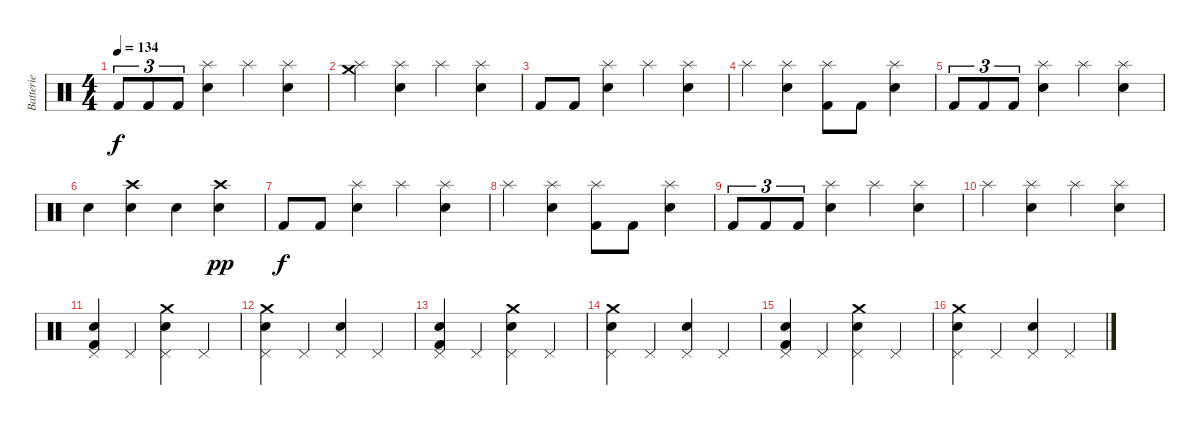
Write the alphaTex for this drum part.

\track ("Batterie" "Batterie") {instrument percussion}
\staff {score}
\articulation defaults
\ts (4 4)
\tempo 134
\clef neutral
\ks c "Kick (hit) 2".8{tu (3 2) dy f} "Kick (hit) 2".8{tu (3 2)} "Kick (hit) 2".8{tu (3 2)}
("Splash (hit)" "Electric Snare (hit)").4 "Splash (hit)".4 ("Splash (hit)" "Electric Snare (hit)").4 |
("Splash (hit)" "Crash medium (hit)").4 ("Splash (hit)" "Electric Snare (hit)").4 "Splash (hit)".4 ("Splash (hit)" "Electric Snare (hit)").4 |
"Kick (hit) 2".8 "Kick (hit) 2".8 ("Splash (hit)" "Electric Snare (hit)").4 "Splash (hit)".4 ("Splash (hit)" "Electric Snare (hit)").4 |
"Splash (hit)".4 ("Splash (hit)" "Electric Snare (hit)").4 ("Splash (hit)" "Kick (hit) 2").8 "Kick (hit) 2".8 ("Splash (hit)" "Electric Snare (hit)").4 |
"Kick (hit) 2".8{tu (3 2)} "Kick (hit) 2".8{tu (3 2)} "Kick (hit) 2".8{tu (3 2)} ("Splash (hit)" "Electric Snare (hit)").4 "Splash (hit)".4 ("Splash (hit)" "Electric Snare (hit)").4 |
"Snare (hit) 2".4 ("Snare (hit) 2" "Crash high (hit)").4 "Snare (hit) 2".4 ("Snare (hit) 2" "Crash high (hit)").4{dy pp} |
"Kick (hit) 2".8{dy f} "Kick (hit) 2".8 ("Splash (hit)" "Electric Snare (hit)").4 "Splash (hit)".4 ("Splash (hit)" "Electric Snare (hit)").4 |
"Splash (hit)".4 ("Splash (hit)" "Electric Snare (hit)").4 ("Splash (hit)" "Kick (hit) 2").8 "Kick (hit) 2".8 ("Splash (hit)" "Electric Snare (hit)").4 |
"Kick (hit) 2".8{tu (3 2)} "Kick (hit) 2".8{tu (3 2)} "Kick (hit) 2".8{tu (3 2)} ("Splash (hit)" "Electric Snare (hit)").4 "Splash (hit)".4 ("Splash (hit)" "Electric Snare (hit)").4 |
"Splash (hit)".4 ("Splash (hit)" "Electric Snare (hit)").4 "Splash (hit)".4 ("Splash (hit)" "Electric Snare (hit)").4 |
("Pedal Hi-Hat (hit)" "Kick (hit) 2" "Snare (hit) 2").4 "Pedal Hi-Hat (hit)".4 ("Pedal Hi-Hat (hit)" "Crash medium (hit)" "Snare (hit) 2").4 "Pedal Hi-Hat (hit)".4 |
("Pedal Hi-Hat (hit)" "Crash medium (hit)" "Snare (hit) 2").4 "Pedal Hi-Hat (hit)".4 ("Pedal Hi-Hat (hit)" "Snare (hit) 2").4 "Pedal Hi-Hat (hit)".4 |
("Pedal Hi-Hat (hit)" "Kick (hit) 2" "Snare (hit) 2").4 "Pedal Hi-Hat (hit)".4 ("Pedal Hi-Hat (hit)" "Crash medium (hit)" "Snare (hit) 2").4 "Pedal Hi-Hat (hit)".4 |
("Pedal Hi-Hat (hit)" "Crash medium (hit)" "Snare (hit) 2").4 "Pedal Hi-Hat (hit)".4 ("Pedal Hi-Hat (hit)" "Snare (hit) 2").4 "Pedal Hi-Hat (hit)".4 |
("Pedal Hi-Hat (hit)" "Kick (hit) 2" "Snare (hit) 2").4 "Pedal Hi-Hat (hit)".4 ("Pedal Hi-Hat (hit)" "Crash medium (hit)" "Snare (hit) 2").4 "Pedal Hi-Hat (hit)".4 |
("Pedal Hi-Hat (hit)" "Crash medium (hit)" "Snare (hit) 2").4 "Pedal Hi-Hat (hit)".4 ("Pedal Hi-Hat (hit)" "Snare (hit) 2").4 "Pedal Hi-Hat (hit)".4
